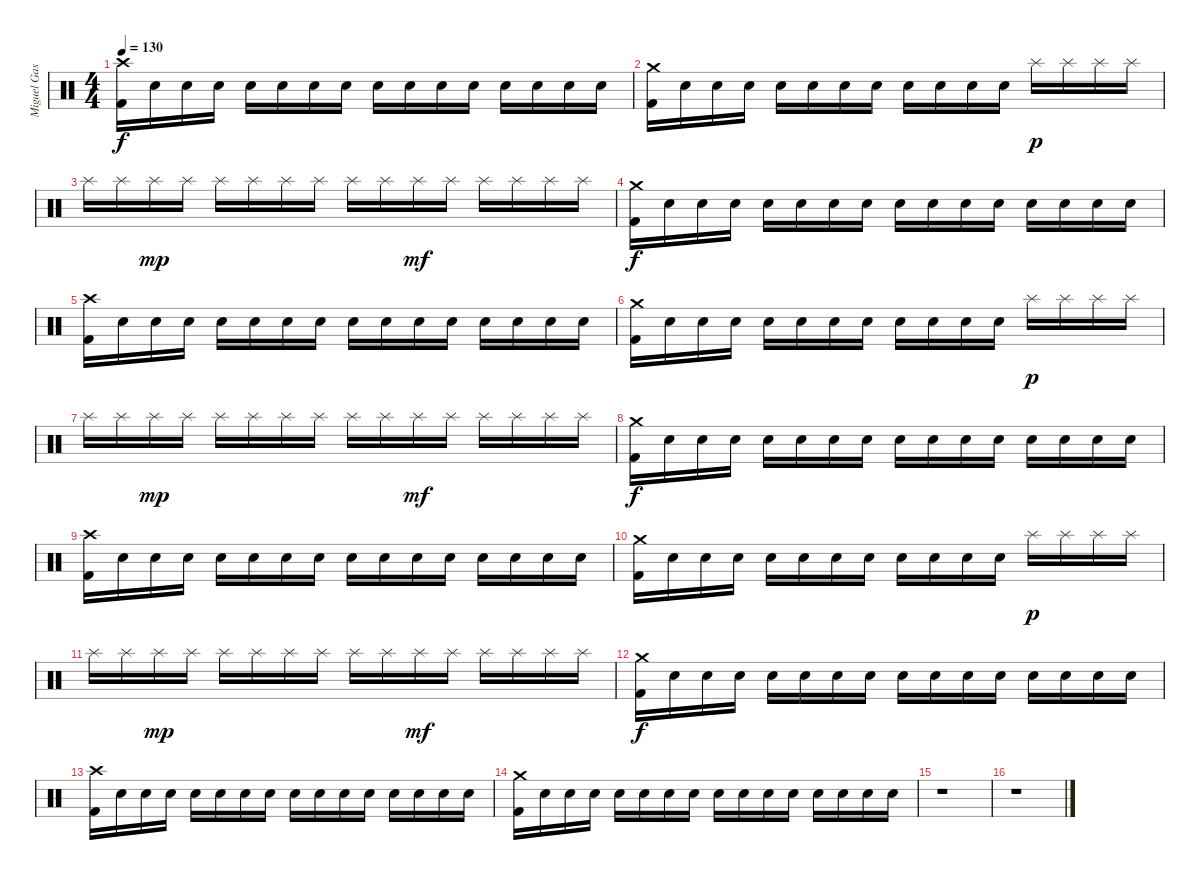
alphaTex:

\track ("Miguel Gaspar - Drums" "Miguel Gas") {instrument percussion}
\staff {score}
\articulation defaults
\ts (4 4)
\tempo 130
\clef neutral
\ks c
("Crash high (hit)" "Kick (hit) 2").16{dy f} "Snare (hit)".16 "Snare (hit)".16 "Snare (hit)".16 "Snare (hit)".16 "Snare (hit)".16 "Snare (hit)".16 "Snare (hit)".16 "Snare (hit)".16 "Snare (hit)".16 "Snare (hit)".16 "Snare (hit)".16 "Snare (hit)".16 "Snare (hit)".16 "Snare (hit)".16 "Snare (hit)".16 |
("Crash medium (hit)" "Kick (hit) 2").16 "Snare (hit)".16 "Snare (hit)".16 "Snare (hit)".16 "Snare (hit)".16 "Snare (hit)".16 "Snare (hit)".16 "Snare (hit)".16 "Snare (hit)".16 "Snare (hit)".16 "Snare (hit)".16 "Snare (hit)".16 "Splash (hit)".16{dy p} "Splash (hit)".16 "Splash (hit)".16 "Splash (hit)".16 |
"Splash (hit)".16 "Splash (hit)".16 "Splash (hit)".16{dy mp} "Splash (hit)".16 "Splash (hit)".16 "Splash (hit)".16 "Splash (hit)".16 "Splash (hit)".16 "Splash (hit)".16 "Splash (hit)".16 "Splash (hit)".16{dy mf} "Splash (hit)".16 "Splash (hit)".16 "Splash (hit)".16 "Splash (hit)".16 "Splash (hit)".16 |
("Crash medium (hit)" "Kick (hit) 2").16{dy f} "Snare (hit)".16 "Snare (hit)".16 "Snare (hit)".16 "Snare (hit)".16 "Snare (hit)".16 "Snare (hit)".16 "Snare (hit)".16 "Snare (hit)".16 "Snare (hit)".16 "Snare (hit)".16 "Snare (hit)".16 "Snare (hit)".16 "Snare (hit)".16 "Snare (hit)".16 "Snare (hit)".16 |
("Crash high (hit)" "Kick (hit) 2").16 "Snare (hit)".16 "Snare (hit)".16 "Snare (hit)".16 "Snare (hit)".16 "Snare (hit)".16 "Snare (hit)".16 "Snare (hit)".16 "Snare (hit)".16 "Snare (hit)".16 "Snare (hit)".16 "Snare (hit)".16 "Snare (hit)".16 "Snare (hit)".16 "Snare (hit)".16 "Snare (hit)".16 |
("Crash medium (hit)" "Kick (hit) 2").16 "Snare (hit)".16 "Snare (hit)".16 "Snare (hit)".16 "Snare (hit)".16 "Snare (hit)".16 "Snare (hit)".16 "Snare (hit)".16 "Snare (hit)".16 "Snare (hit)".16 "Snare (hit)".16 "Snare (hit)".16 "Splash (hit)".16{dy p} "Splash (hit)".16 "Splash (hit)".16 "Splash (hit)".16 |
"Splash (hit)".16 "Splash (hit)".16 "Splash (hit)".16{dy mp} "Splash (hit)".16 "Splash (hit)".16 "Splash (hit)".16 "Splash (hit)".16 "Splash (hit)".16 "Splash (hit)".16 "Splash (hit)".16 "Splash (hit)".16{dy mf} "Splash (hit)".16 "Splash (hit)".16 "Splash (hit)".16 "Splash (hit)".16 "Splash (hit)".16 |
("Crash medium (hit)" "Kick (hit) 2").16{dy f} "Snare (hit)".16 "Snare (hit)".16 "Snare (hit)".16 "Snare (hit)".16 "Snare (hit)".16 "Snare (hit)".16 "Snare (hit)".16 "Snare (hit)".16 "Snare (hit)".16 "Snare (hit)".16 "Snare (hit)".16 "Snare (hit)".16 "Snare (hit)".16 "Snare (hit)".16 "Snare (hit)".16 |
("Crash high (hit)" "Kick (hit) 2").16 "Snare (hit)".16 "Snare (hit)".16 "Snare (hit)".16 "Snare (hit)".16 "Snare (hit)".16 "Snare (hit)".16 "Snare (hit)".16 "Snare (hit)".16 "Snare (hit)".16 "Snare (hit)".16 "Snare (hit)".16 "Snare (hit)".16 "Snare (hit)".16 "Snare (hit)".16 "Snare (hit)".16 |
("Crash medium (hit)" "Kick (hit) 2").16 "Snare (hit)".16 "Snare (hit)".16 "Snare (hit)".16 "Snare (hit)".16 "Snare (hit)".16 "Snare (hit)".16 "Snare (hit)".16 "Snare (hit)".16 "Snare (hit)".16 "Snare (hit)".16 "Snare (hit)".16 "Splash (hit)".16{dy p} "Splash (hit)".16 "Splash (hit)".16 "Splash (hit)".16 |
"Splash (hit)".16 "Splash (hit)".16 "Splash (hit)".16{dy mp} "Splash (hit)".16 "Splash (hit)".16 "Splash (hit)".16 "Splash (hit)".16 "Splash (hit)".16 "Splash (hit)".16 "Splash (hit)".16 "Splash (hit)".16{dy mf} "Splash (hit)".16 "Splash (hit)".16 "Splash (hit)".16 "Splash (hit)".16 "Splash (hit)".16 |
("Crash medium (hit)" "Kick (hit) 2").16{dy f} "Snare (hit)".16 "Snare (hit)".16 "Snare (hit)".16 "Snare (hit)".16 "Snare (hit)".16 "Snare (hit)".16 "Snare (hit)".16 "Snare (hit)".16 "Snare (hit)".16 "Snare (hit)".16 "Snare (hit)".16 "Snare (hit)".16 "Snare (hit)".16 "Snare (hit)".16 "Snare (hit)".16 |
("Crash high (hit)" "Kick (hit) 2").16 "Snare (hit)".16 "Snare (hit)".16 "Snare (hit)".16 "Snare (hit)".16 "Snare (hit)".16 "Snare (hit)".16 "Snare (hit)".16 "Snare (hit)".16 "Snare (hit)".16 "Snare (hit)".16 "Snare (hit)".16 "Snare (hit)".16 "Snare (hit)".16 "Snare (hit)".16 "Snare (hit)".16 |
("Crash medium (hit)" "Kick (hit) 2").16 "Snare (hit)".16 "Snare (hit)".16 "Snare (hit)".16 "Snare (hit)".16{volume 0} "Snare (hit)".16 "Snare (hit)".16 "Snare (hit)".16 "Snare (hit)".16 "Snare (hit)".16 "Snare (hit)".16 "Snare (hit)".16 "Snare (hit)".16 "Snare (hit)".16 "Snare (hit)".16 "Snare (hit)".16 |
r.1 |
r.1
